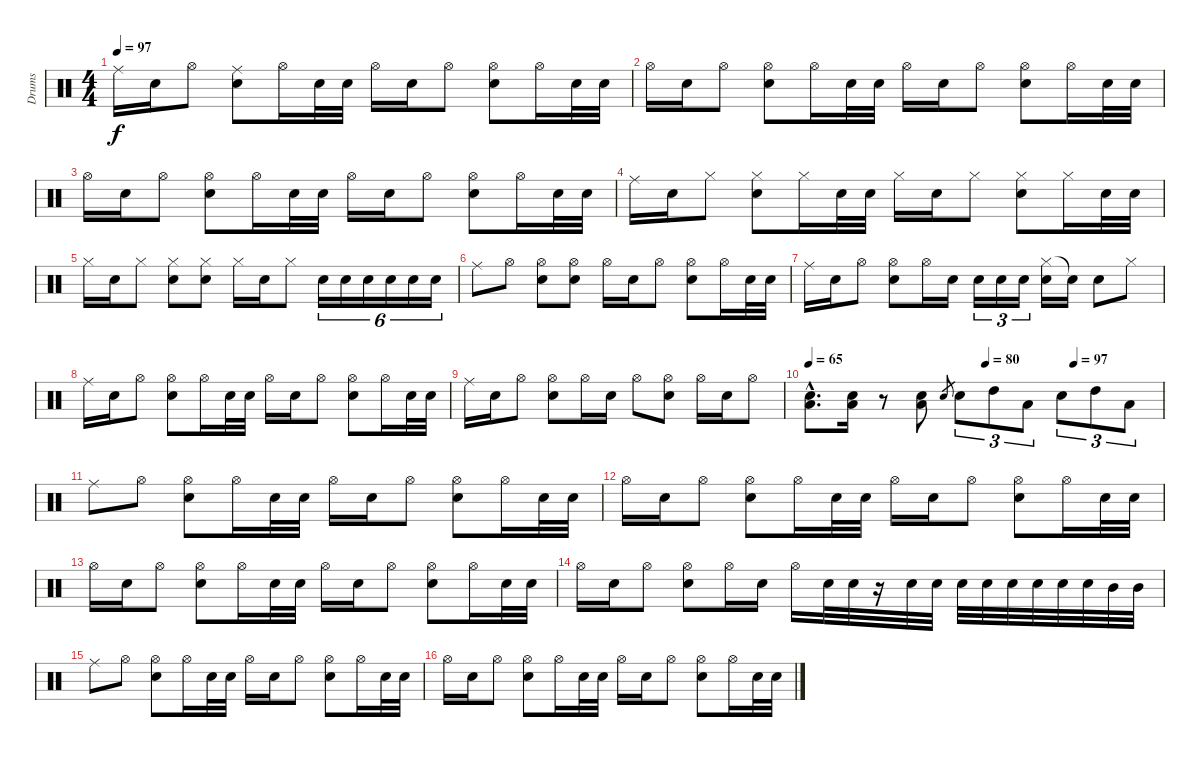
\track ("Drums" "Drums") {instrument percussion}
\staff {score}
\articulation defaults
\ts (4 4)
\tempo 97
\clef neutral
\ks c "Ride (middle)".16{dy f} "Snare (hit) 2".16 "Hi-Hat (open)".8
("Ride (middle)" "Snare (hit) 2").8 "Hi-Hat (open)".16 "Snare (hit) 2".32 "Snare (hit) 2".32 "Hi-Hat (open)".16 "Snare (hit) 2".16 "Hi-Hat (open)".8 ("Hi-Hat (open)" "Snare (hit) 2").8 "Hi-Hat (open)".16 "Snare (hit) 2".32 "Snare (hit) 2".32 |
"Hi-Hat (open)".16 "Snare (hit) 2".16 "Hi-Hat (open)".8 ("Hi-Hat (open)" "Snare (hit) 2").8 "Hi-Hat (open)".16 "Snare (hit) 2".32 "Snare (hit) 2".32 "Hi-Hat (open)".16 "Snare (hit) 2".16 "Hi-Hat (open)".8 ("Hi-Hat (open)" "Snare (hit) 2").8 "Hi-Hat (open)".16 "Snare (hit) 2".32 "Snare (hit) 2".32 |
"Hi-Hat (open)".16 "Snare (hit) 2".16 "Hi-Hat (open)".8 ("Hi-Hat (open)" "Snare (hit) 2").8 "Hi-Hat (open)".16 "Snare (hit) 2".32 "Snare (hit) 2".32 "Hi-Hat (open)".16 "Snare (hit) 2".16 "Hi-Hat (open)".8 ("Hi-Hat (open)" "Snare (hit) 2").8 "Hi-Hat (open)".16 "Snare (hit) 2".32 "Snare (hit) 2".32 |
"Ride (middle)".16 "Snare (hit) 2".16 "Hi-Hat (closed)".8 ("Hi-Hat (closed)" "Snare (hit) 2").8 "Hi-Hat (closed)".16 "Snare (hit) 2".32 "Snare (hit) 2".32 "Hi-Hat (closed)".16 "Snare (hit) 2".16 "Hi-Hat (closed)".8 ("Hi-Hat (closed)" "Snare (hit) 2").8 "Hi-Hat (closed)".16 "Snare (hit) 2".32 "Snare (hit) 2".32 |
"Hi-Hat (closed)".16 "Snare (hit) 2".16 "Hi-Hat (closed)".8 ("Hi-Hat (closed)" "Snare (hit) 2").8 ("Hi-Hat (closed)" "Snare (hit) 2").8 "Hi-Hat (closed)".16 "Snare (hit) 2".16 "Hi-Hat (closed)".8 "Snare (hit) 2".16{tu (6 4)} "Snare (hit) 2".16{tu (6 4)} "Snare (hit) 2".16{tu (6 4)} "Snare (hit) 2".16{tu (6 4)} "Snare (hit) 2".16{tu (6 4)} "Snare (hit) 2".16{tu (6 4)} |
"Ride (middle)".8 "Hi-Hat (open)".8 ("Hi-Hat (open)" "Snare (hit) 2").8 ("Hi-Hat (open)" "Snare (hit) 2").8 "Hi-Hat (open)".16 "Snare (hit) 2".16 "Hi-Hat (open)".8 ("Hi-Hat (open)" "Snare (hit) 2").8 "Hi-Hat (open)".16 "Snare (hit) 2".32 "Snare (hit) 2".32 |
"Ride (middle)".16 "Snare (hit) 2".16 "Hi-Hat (open)".8 ("Hi-Hat (open)" "Snare (hit) 2").8 "Hi-Hat (open)".16 "Snare (hit) 2".16 "Snare (hit) 2".16{tu (3 2)} "Snare (hit) 2".16{tu (3 2)} "Snare (hit) 2".16{tu (3 2)} ("Hi-Hat (closed)" "Snare (hit) 2").16 "Snare (hit)"{t}.16 "Snare (hit) 2".8 "Hi-Hat (closed)".8 |
"Ride (middle)".16 "Snare (hit) 2".16 "Hi-Hat (open)".8 ("Hi-Hat (open)" "Snare (hit) 2").8 "Hi-Hat (open)".16 "Snare (hit) 2".32 "Snare (hit) 2".32 "Hi-Hat (open)".16 "Snare (hit) 2".16 "Hi-Hat (open)".8 ("Hi-Hat (open)" "Snare (hit) 2").8 "Hi-Hat (open)".16 "Snare (hit) 2".32 "Snare (hit) 2".32 |
"Ride (middle)".16 "Snare (hit) 2".16 "Hi-Hat (open)".8 ("Hi-Hat (open)" "Snare (hit) 2").8 "Hi-Hat (open)".16 "Snare (hit) 2".16 "Hi-Hat (open)".8 ("Hi-Hat (open)" "Snare (hit) 2").8 "Hi-Hat (open)".16 "Snare (hit) 2".16 "Hi-Hat (open)".8 |
\tempo 65
\tempo (80 0.5)
\tempo (97 0.75)
("Snare (hit) 2"{hac} "Low Tom (hit)"{hac}).8{d} ("Snare (hit) 2" "Low Tom (hit)").16 r.8 ("Snare (hit) 2" "Low Tom (hit)").8 "Snare (hit) 2".8{gr} "Snare (hit) 2".8{tu (3 2)} "High Tom (hit)".8{tu (3 2)} "Low Tom (hit)".8{tu (3 2)} "Snare (hit) 2".8{tu (3 2)} "High Tom (hit)".8{tu (3 2)} "Low Tom (hit)".8{tu (3 2)} |
"Ride (middle)".8 "Hi-Hat (open)".8 ("Hi-Hat (open)" "Snare (hit) 2").8 "Hi-Hat (open)".16 "Snare (hit) 2".32 "Snare (hit) 2".32 "Hi-Hat (open)".16 "Snare (hit) 2".16 "Hi-Hat (open)".8 ("Hi-Hat (open)" "Snare (hit) 2").8 "Hi-Hat (open)".16 "Snare (hit) 2".32 "Snare (hit) 2".32 |
"Hi-Hat (open)".16 "Snare (hit) 2".16 "Hi-Hat (open)".8 ("Hi-Hat (open)" "Snare (hit) 2").8 "Hi-Hat (open)".16 "Snare (hit) 2".32 "Snare (hit) 2".32 "Hi-Hat (open)".16 "Snare (hit) 2".16 "Hi-Hat (open)".8 ("Hi-Hat (open)" "Snare (hit) 2").8 "Hi-Hat (open)".16 "Snare (hit) 2".32 "Snare (hit) 2".32 |
"Hi-Hat (open)".16 "Snare (hit) 2".16 "Hi-Hat (open)".8 ("Hi-Hat (open)" "Snare (hit) 2").8 "Hi-Hat (open)".16 "Snare (hit) 2".32 "Snare (hit) 2".32 "Hi-Hat (open)".16 "Snare (hit) 2".16 "Hi-Hat (open)".8 ("Hi-Hat (open)" "Snare (hit) 2").8 "Hi-Hat (open)".16 "Snare (hit) 2".32 "Snare (hit) 2".32 |
"Hi-Hat (open)".16 "Snare (hit) 2".16 "Hi-Hat (open)".8 ("Hi-Hat (open)" "Snare (hit) 2").8 "Hi-Hat (open)".16 "Snare (hit) 2".16 "Hi-Hat (open)".16 "Snare (hit) 2".32 "Snare (hit) 2".32 r.16 "Snare (hit) 2".32 "Snare (hit) 2".32 "Snare (hit) 2".32 "Snare (hit) 2".32 "Snare (hit) 2".32 "Snare (hit) 2".32 "Snare (hit) 2".32 "Snare (hit) 2".32 "Mid Tom (hit)".32 "Mid Tom (hit)".32 |
"Ride (middle)".8 "Hi-Hat (open)".8 ("Hi-Hat (open)" "Snare (hit) 2").8 "Hi-Hat (open)".16 "Snare (hit) 2".32 "Snare (hit) 2".32 "Hi-Hat (open)".16 "Snare (hit) 2".16 "Hi-Hat (open)".8 ("Hi-Hat (open)" "Snare (hit) 2").8 "Hi-Hat (open)".16 "Snare (hit) 2".32 "Snare (hit) 2".32 |
"Hi-Hat (open)".16 "Snare (hit) 2".16 "Hi-Hat (open)".8 ("Hi-Hat (open)" "Snare (hit) 2").8 "Hi-Hat (open)".16 "Snare (hit) 2".32 "Snare (hit) 2".32 "Hi-Hat (open)".16 "Snare (hit) 2".16 "Hi-Hat (open)".8 ("Hi-Hat (open)" "Snare (hit) 2").8 "Hi-Hat (open)".16 "Snare (hit) 2".32 "Snare (hit) 2".32
